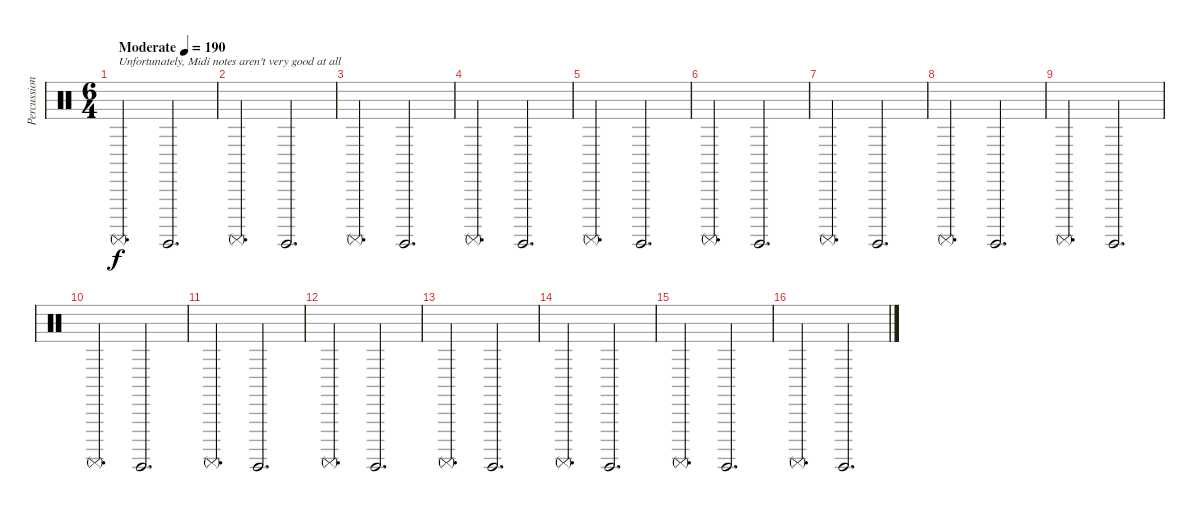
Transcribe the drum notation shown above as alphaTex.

\track ("Percussion" "Percussion") {instrument percussion}
\staff {score}
\articulation defaults
\ts (6 4)
\tempo (190 "Moderate")
\clef neutral
\ks c "Surdo (mute)".2{d txt "Unfortunately, Midi notes aren't very good at all" dy f} "Surdo (hit)".2{d}
|
"Surdo (mute)".2{d} "Surdo (hit)".2{d} |
"Surdo (mute)".2{d} "Surdo (hit)".2{d} |
"Surdo (mute)".2{d} "Surdo (hit)".2{d} |
"Surdo (mute)".2{d} "Surdo (hit)".2{d} |
"Surdo (mute)".2{d} "Surdo (hit)".2{d} |
"Surdo (mute)".2{d} "Surdo (hit)".2{d} |
"Surdo (mute)".2{d} "Surdo (hit)".2{d} |
"Surdo (mute)".2{d} "Surdo (hit)".2{d} |
"Surdo (mute)".2{d} "Surdo (hit)".2{d} |
"Surdo (mute)".2{d} "Surdo (hit)".2{d} |
"Surdo (mute)".2{d} "Surdo (hit)".2{d} |
"Surdo (mute)".2{d} "Surdo (hit)".2{d} |
"Surdo (mute)".2{d} "Surdo (hit)".2{d} |
"Surdo (mute)".2{d} "Surdo (hit)".2{d} |
"Surdo (mute)".2{d} "Surdo (hit)".2{d}
